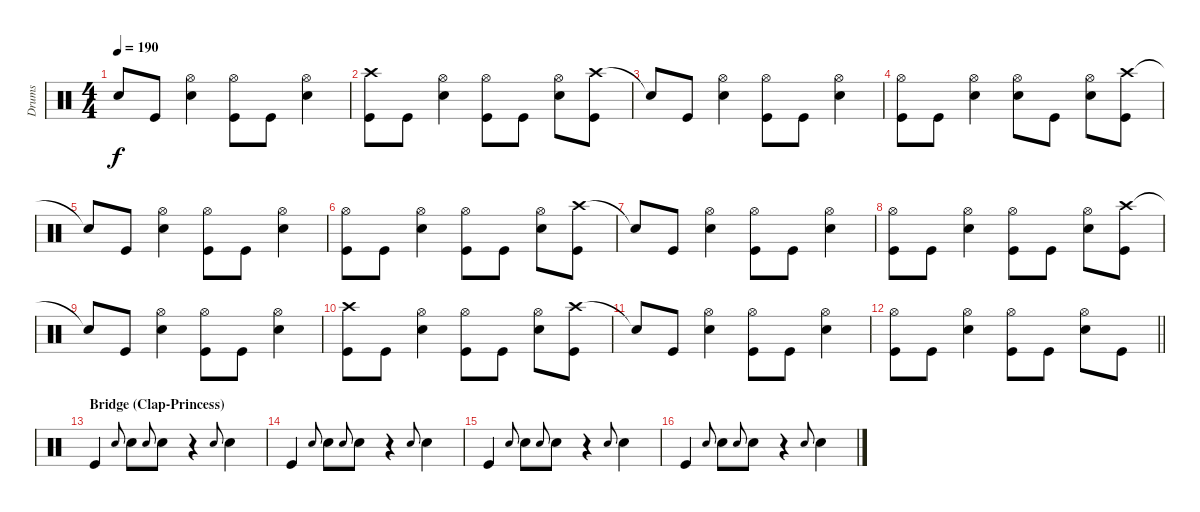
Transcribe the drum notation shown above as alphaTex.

\track ("Drums" "Drums") {instrument percussion}
\staff {score}
\articulation defaults
\ts (4 4)
\tempo 190
\clef neutral
\ks c "Snare (hit)"{t}.8{dy f} "Kick (hit)".8
("Hi-Hat (open)" "Snare (hit) 2").4 ("Hi-Hat (open)" "Kick (hit)").8 "Kick (hit)".8 ("Hi-Hat (open)" "Snare (hit) 2").4 |
("Crash high (hit)" "Kick (hit)").8 "Kick (hit)".8 ("Hi-Hat (open)" "Snare (hit) 2").4 ("Hi-Hat (open)" "Kick (hit)").8 "Kick (hit)".8 ("Hi-Hat (open)" "Snare (hit) 2").8 ("Crash high (hit)" "Kick (hit)").8 |
"Snare (hit)"{t}.8 "Kick (hit)".8 ("Hi-Hat (open)" "Snare (hit) 2").4 ("Hi-Hat (open)" "Kick (hit)").8 "Kick (hit)".8 ("Hi-Hat (open)" "Snare (hit) 2").4 |
("Hi-Hat (open)" "Kick (hit)").8 "Kick (hit)".8 ("Hi-Hat (open)" "Snare (hit) 2").4 ("Hi-Hat (open)" "Snare (hit) 2").8 "Kick (hit)".8 ("Hi-Hat (open)" "Snare (hit) 2").8 ("Crash high (hit)" "Kick (hit)").8 |
"Snare (hit)"{t}.8 "Kick (hit)".8 ("Hi-Hat (open)" "Snare (hit) 2").4 ("Hi-Hat (open)" "Kick (hit)").8 "Kick (hit)".8 ("Hi-Hat (open)" "Snare (hit) 2").4 |
("Hi-Hat (open)" "Kick (hit)").8 "Kick (hit)".8 ("Hi-Hat (open)" "Snare (hit) 2").4 ("Hi-Hat (open)" "Kick (hit)").8 "Kick (hit)".8 ("Hi-Hat (open)" "Snare (hit) 2").8 ("Crash high (hit)" "Kick (hit)").8 |
"Snare (hit)"{t}.8 "Kick (hit)".8 ("Hi-Hat (open)" "Snare (hit) 2").4 ("Hi-Hat (open)" "Kick (hit)").8 "Kick (hit)".8 ("Hi-Hat (open)" "Snare (hit) 2").4 |
("Hi-Hat (open)" "Kick (hit)").8 "Kick (hit)".8 ("Hi-Hat (open)" "Snare (hit) 2").4 ("Hi-Hat (open)" "Kick (hit)").8 "Kick (hit)".8 ("Hi-Hat (open)" "Snare (hit) 2").8 ("Crash high (hit)" "Kick (hit)").8 |
"Snare (hit)"{t}.8 "Kick (hit)".8 ("Hi-Hat (open)" "Snare (hit) 2").4 ("Hi-Hat (open)" "Kick (hit)").8 "Kick (hit)".8 ("Hi-Hat (open)" "Snare (hit) 2").4 |
("Crash high (hit)" "Kick (hit)").8 "Kick (hit)".8 ("Hi-Hat (open)" "Snare (hit) 2").4 ("Hi-Hat (open)" "Kick (hit)").8 "Kick (hit)".8 ("Hi-Hat (open)" "Snare (hit) 2").8 ("Crash high (hit)" "Kick (hit)").8 |
"Snare (hit)"{t}.8 "Kick (hit)".8 ("Hi-Hat (open)" "Snare (hit) 2").4 ("Hi-Hat (open)" "Kick (hit)").8 "Kick (hit)".8 ("Hi-Hat (open)" "Snare (hit) 2").4 |
\barLineRight lightlight
("Hi-Hat (open)" "Kick (hit)").8 "Kick (hit)".8 ("Hi-Hat (open)" "Snare (hit) 2").4 ("Hi-Hat (open)" "Kick (hit)").8 "Kick (hit)".8 ("Hi-Hat (open)" "Snare (hit) 2").8 "Kick (hit)".8 |
\section ("" "Bridge (Clap-Princess)")
"Kick (hit)".4 "Snare (hit) 2".8{gr onbeat} "Snare (hit) 2".8 "Snare (hit) 2".8{gr onbeat} "Snare (hit) 2".8 r.4 "Snare (hit) 2".8{gr onbeat} "Snare (hit) 2".4 |
"Kick (hit)".4 "Snare (hit) 2".8{gr onbeat} "Snare (hit) 2".8 "Snare (hit) 2".8{gr onbeat} "Snare (hit) 2".8 r.4 "Snare (hit) 2".8{gr onbeat} "Snare (hit) 2".4 |
"Kick (hit)".4 "Snare (hit) 2".8{gr onbeat} "Snare (hit) 2".8 "Snare (hit) 2".8{gr onbeat} "Snare (hit) 2".8 r.4 "Snare (hit) 2".8{gr onbeat} "Snare (hit) 2".4 |
"Kick (hit)".4 "Snare (hit) 2".8{gr onbeat} "Snare (hit) 2".8 "Snare (hit) 2".8{gr onbeat} "Snare (hit) 2".8 r.4 "Snare (hit) 2".8{gr onbeat} "Snare (hit) 2".4
